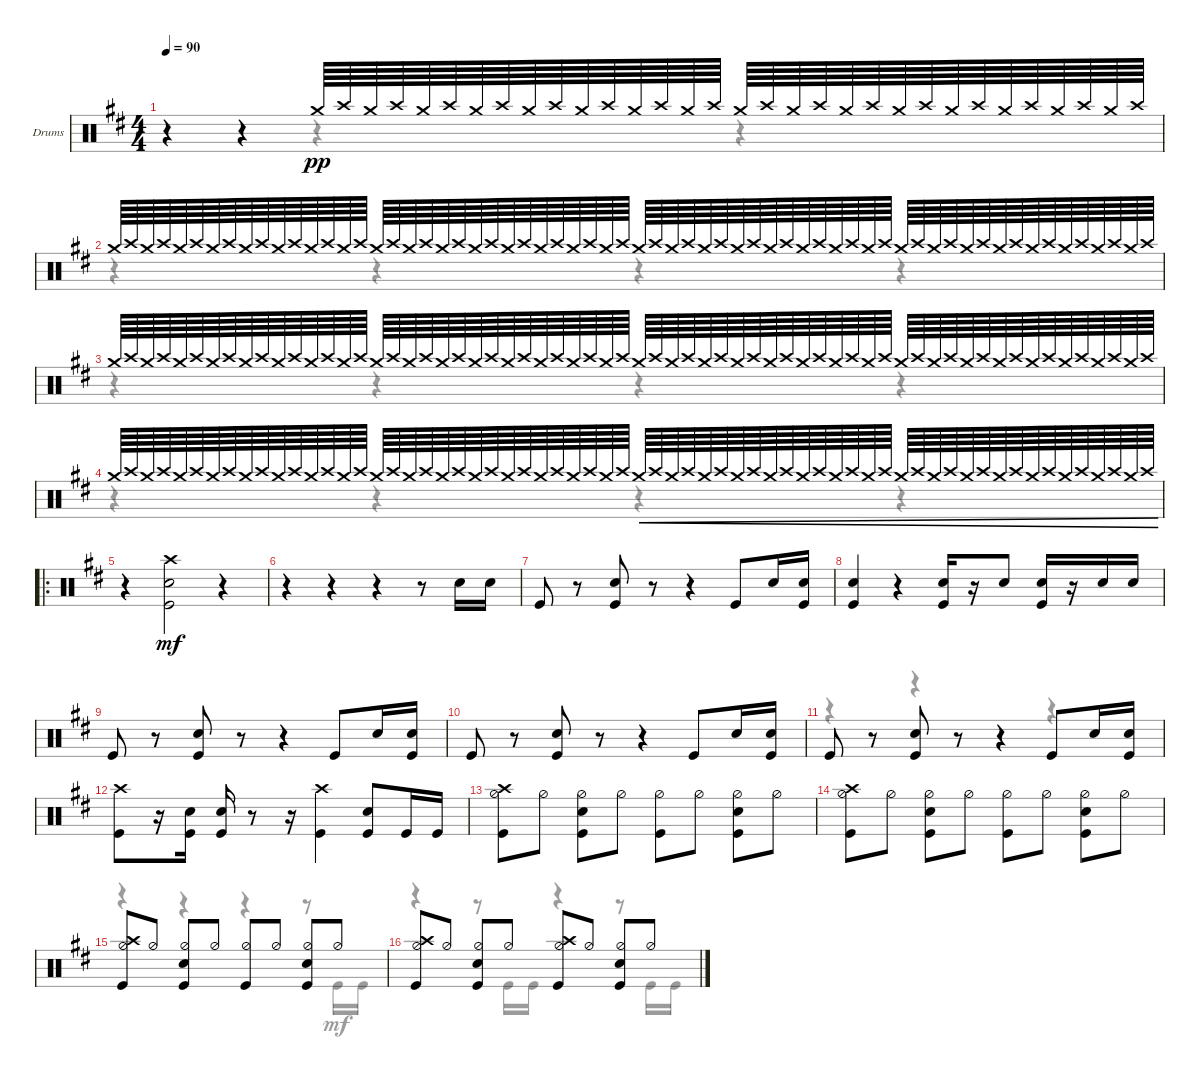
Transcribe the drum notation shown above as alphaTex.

\defaultSystemsLayout 4
\bracketExtendMode groupsimilarinstruments
\firstSystemTrackNameOrientation horizontal
\otherSystemsTrackNameOrientation horizontal
\track ("Drumkit" "Drums") {instrument percussion}
\staff {score}
\articulation defaults
\voice
\ts (4 4)
\tempo 90
\clef neutral
\ks bminor
r.4{dy pp} r.4 "Crash medium (hit)".64 "Crash high (hit)".64 "Crash medium (hit)".64 "Crash high (hit)".64 "Crash medium (hit)".64 "Crash high (hit)".64 "Crash medium (hit)".64 "Crash high (hit)".64 "Crash medium (hit)".64 "Crash high (hit)".64 "Crash medium (hit)".64 "Crash high (hit)".64 "Crash medium (hit)".64 "Crash high (hit)".64 "Crash medium (hit)".64 "Crash high (hit)".64 "Crash medium (hit)".64 "Crash high (hit)".64 "Crash medium (hit)".64 "Crash high (hit)".64 "Crash medium (hit)".64 "Crash high (hit)".64 "Crash medium (hit)".64 "Crash high (hit)".64 "Crash medium (hit)".64 "Crash high (hit)".64 "Crash medium (hit)".64 "Crash high (hit)".64 "Crash medium (hit)".64 "Crash high (hit)".64 "Crash medium (hit)".64 "Crash high (hit)".64 |
"Crash medium (hit)".64 "Crash high (hit)".64 "Crash medium (hit)".64 "Crash high (hit)".64 "Crash medium (hit)".64 "Crash high (hit)".64 "Crash medium (hit)".64 "Crash high (hit)".64 "Crash medium (hit)".64 "Crash high (hit)".64 "Crash medium (hit)".64 "Crash high (hit)".64 "Crash medium (hit)".64 "Crash high (hit)".64 "Crash medium (hit)".64 "Crash high (hit)".64 "Crash medium (hit)".64 "Crash high (hit)".64 "Crash medium (hit)".64 "Crash high (hit)".64 "Crash medium (hit)".64 "Crash high (hit)".64 "Crash medium (hit)".64 "Crash high (hit)".64 "Crash medium (hit)".64 "Crash high (hit)".64 "Crash medium (hit)".64 "Crash high (hit)".64 "Crash medium (hit)".64 "Crash high (hit)".64 "Crash medium (hit)".64 "Crash high (hit)".64 "Crash medium (hit)".64 "Crash high (hit)".64 "Crash medium (hit)".64 "Crash high (hit)".64 "Crash medium (hit)".64 "Crash high (hit)".64 "Crash medium (hit)".64 "Crash high (hit)".64 "Crash medium (hit)".64 "Crash high (hit)".64 "Crash medium (hit)".64 "Crash high (hit)".64 "Crash medium (hit)".64 "Crash high (hit)".64 "Crash medium (hit)".64 "Crash high (hit)".64 "Crash medium (hit)".64 "Crash high (hit)".64 "Crash medium (hit)".64 "Crash high (hit)".64 "Crash medium (hit)".64 "Crash high (hit)".64 "Crash medium (hit)".64 "Crash high (hit)".64 "Crash medium (hit)".64 "Crash high (hit)".64 "Crash medium (hit)".64 "Crash high (hit)".64 "Crash medium (hit)".64 "Crash high (hit)".64 "Crash medium (hit)".64 "Crash high (hit)".64 |
"Crash medium (hit)".64 "Crash high (hit)".64 "Crash medium (hit)".64 "Crash high (hit)".64 "Crash medium (hit)".64 "Crash high (hit)".64 "Crash medium (hit)".64 "Crash high (hit)".64 "Crash medium (hit)".64 "Crash high (hit)".64 "Crash medium (hit)".64 "Crash high (hit)".64 "Crash medium (hit)".64 "Crash high (hit)".64 "Crash medium (hit)".64 "Crash high (hit)".64 "Crash medium (hit)".64 "Crash high (hit)".64 "Crash medium (hit)".64 "Crash high (hit)".64 "Crash medium (hit)".64 "Crash high (hit)".64 "Crash medium (hit)".64 "Crash high (hit)".64 "Crash medium (hit)".64 "Crash high (hit)".64 "Crash medium (hit)".64 "Crash high (hit)".64 "Crash medium (hit)".64 "Crash high (hit)".64 "Crash medium (hit)".64 "Crash high (hit)".64 "Crash medium (hit)".64 "Crash high (hit)".64 "Crash medium (hit)".64 "Crash high (hit)".64 "Crash medium (hit)".64 "Crash high (hit)".64 "Crash medium (hit)".64 "Crash high (hit)".64 "Crash medium (hit)".64 "Crash high (hit)".64 "Crash medium (hit)".64 "Crash high (hit)".64 "Crash medium (hit)".64 "Crash high (hit)".64 "Crash medium (hit)".64 "Crash high (hit)".64 "Crash medium (hit)".64 "Crash high (hit)".64 "Crash medium (hit)".64 "Crash high (hit)".64 "Crash medium (hit)".64 "Crash high (hit)".64 "Crash medium (hit)".64 "Crash high (hit)".64 "Crash medium (hit)".64 "Crash high (hit)".64 "Crash medium (hit)".64 "Crash high (hit)".64 "Crash medium (hit)".64 "Crash high (hit)".64 "Crash medium (hit)".64 "Crash high (hit)".64 |
"Crash medium (hit)".64 "Crash high (hit)".64 "Crash medium (hit)".64 "Crash high (hit)".64 "Crash medium (hit)".64 "Crash high (hit)".64 "Crash medium (hit)".64 "Crash high (hit)".64 "Crash medium (hit)".64 "Crash high (hit)".64 "Crash medium (hit)".64 "Crash high (hit)".64 "Crash medium (hit)".64 "Crash high (hit)".64 "Crash medium (hit)".64 "Crash high (hit)".64 "Crash medium (hit)".64 "Crash high (hit)".64 "Crash medium (hit)".64 "Crash high (hit)".64 "Crash medium (hit)".64 "Crash high (hit)".64 "Crash medium (hit)".64 "Crash high (hit)".64 "Crash medium (hit)".64 "Crash high (hit)".64 "Crash medium (hit)".64 "Crash high (hit)".64 "Crash medium (hit)".64 "Crash high (hit)".64 "Crash medium (hit)".64 "Crash high (hit)".64 "Crash medium (hit)".64{cre} "Crash high (hit)".64{cre} "Crash medium (hit)".64{cre} "Crash high (hit)".64{cre} "Crash medium (hit)".64{cre} "Crash high (hit)".64{cre} "Crash medium (hit)".64{cre} "Crash high (hit)".64{cre} "Crash medium (hit)".64{cre} "Crash high (hit)".64{cre} "Crash medium (hit)".64{cre} "Crash high (hit)".64{cre} "Crash medium (hit)".64{cre} "Crash high (hit)".64{cre} "Crash medium (hit)".64{cre} "Crash high (hit)".64{cre} "Crash medium (hit)".64{cre} "Crash high (hit)".64{cre} "Crash medium (hit)".64{cre} "Crash high (hit)".64{cre} "Crash medium (hit)".64{cre} "Crash high (hit)".64{cre} "Crash medium (hit)".64{cre} "Crash high (hit)".64{cre} "Crash medium (hit)".64{cre} "Crash high (hit)".64{cre} "Crash medium (hit)".64{cre} "Crash high (hit)".64{cre} "Crash medium (hit)".64{cre} "Crash high (hit)".64{cre} "Crash medium (hit)".64{cre} "Crash high (hit)".64{cre} |
\ro
r.4 ("Kick (hit)" "Snare (hit) 2" "Crash high (hit)").2{dy mf} r.4 |
r.4 r.4 r.4 r.8 "Snare (hit) 2".16 "Snare (hit) 2".16 |
"Kick (hit)".8 r.8 ("Snare (hit) 2" "Kick (hit)").8 r.8 r.4 "Kick (hit)".8 "Snare (hit) 2".16 ("Snare (hit) 2" "Kick (hit)").16 |
("Snare (hit) 2" "Kick (hit)").4 r.4 ("Snare (hit) 2" "Kick (hit)").16 r.16 "Snare (hit) 2".8 ("Snare (hit) 2" "Kick (hit)").16 r.16 "Snare (hit) 2".16 "Snare (hit) 2".16 |
"Kick (hit)".8 r.8 ("Snare (hit) 2" "Kick (hit)").8 r.8 r.4 "Kick (hit)".8 "Snare (hit) 2".16 ("Snare (hit) 2" "Kick (hit)").16 |
"Kick (hit)".8 r.8 ("Snare (hit) 2" "Kick (hit)").8 r.8 r.4 "Kick (hit)".8 "Snare (hit) 2".16 ("Snare (hit) 2" "Kick (hit)").16 |
"Kick (hit)".8 r.8 ("Snare (hit) 2" "Kick (hit)").8 r.8 r.4 "Kick (hit)".8 "Snare (hit) 2".16 ("Snare (hit) 2" "Kick (hit)").16 |
("Kick (hit)" "Crash high (hit)").8 r.16 ("Snare (hit) 2" "Kick (hit)").16 ("Kick (hit)" "Snare (hit) 2").16 r.8 r.16 ("Kick (hit)" "Crash high (hit)").4 ("Snare (hit) 2" "Kick (hit)").8 "Kick (hit)".16 "Kick (hit)".16 |
("Crash high (hit)" "Hi-Hat (half)" "Kick (hit)").8 "Hi-Hat (half)".8 ("Hi-Hat (half)" "Snare (hit) 2" "Kick (hit)").8 "Hi-Hat (half)".8 ("Hi-Hat (half)" "Kick (hit)").8 "Hi-Hat (half)".8 ("Hi-Hat (half)" "Snare (hit) 2" "Kick (hit)").8 "Hi-Hat (half)".8 |
("Crash high (hit)" "Hi-Hat (half)" "Kick (hit)").8 "Hi-Hat (half)".8 ("Hi-Hat (half)" "Snare (hit) 2" "Kick (hit)").8 "Hi-Hat (half)".8 ("Hi-Hat (half)" "Kick (hit)").8 "Hi-Hat (half)".8 ("Hi-Hat (half)" "Snare (hit) 2" "Kick (hit)").8 "Hi-Hat (half)".8 |
("Crash high (hit)" "Hi-Hat (half)" "Kick (hit)").8 "Hi-Hat (half)".8 ("Hi-Hat (half)" "Snare (hit) 2" "Kick (hit)").8 "Hi-Hat (half)".8 ("Hi-Hat (half)" "Kick (hit)").8 "Hi-Hat (half)".8 ("Hi-Hat (half)" "Snare (hit) 2" "Kick (hit)").8 "Hi-Hat (half)".8 |
("Crash high (hit)" "Hi-Hat (half)" "Kick (hit)").8 "Hi-Hat (half)".8 ("Hi-Hat (half)" "Snare (hit) 2" "Kick (hit)").8 "Hi-Hat (half)".8 ("Hi-Hat (half)" "Kick (hit)" "Crash high (hit)").8 "Hi-Hat (half)".8 ("Hi-Hat (half)" "Snare (hit) 2" "Kick (hit)").8 "Hi-Hat (half)".8
\voice
\clef neutral
\ottava regular
\simile none
\ks bminor
r.4{dy mf} r.4 r.4 r.4 |
r.4 r.4 r.4 r.4 |
r.4 r.4 r.4 r.4 |
r.4 r.4 r.4 r.4 |
|
|
|
|
|
|
r.4 r.4 r.4 r.4 |
|
|
|
r.4 r.4 r.4 r.8 "Kick (hit)".16 "Kick (hit)".16 |
r.4 r.8 "Kick (hit)".16 "Kick (hit)".16 r.4 r.8 "Kick (hit)".16 "Kick (hit)".16
